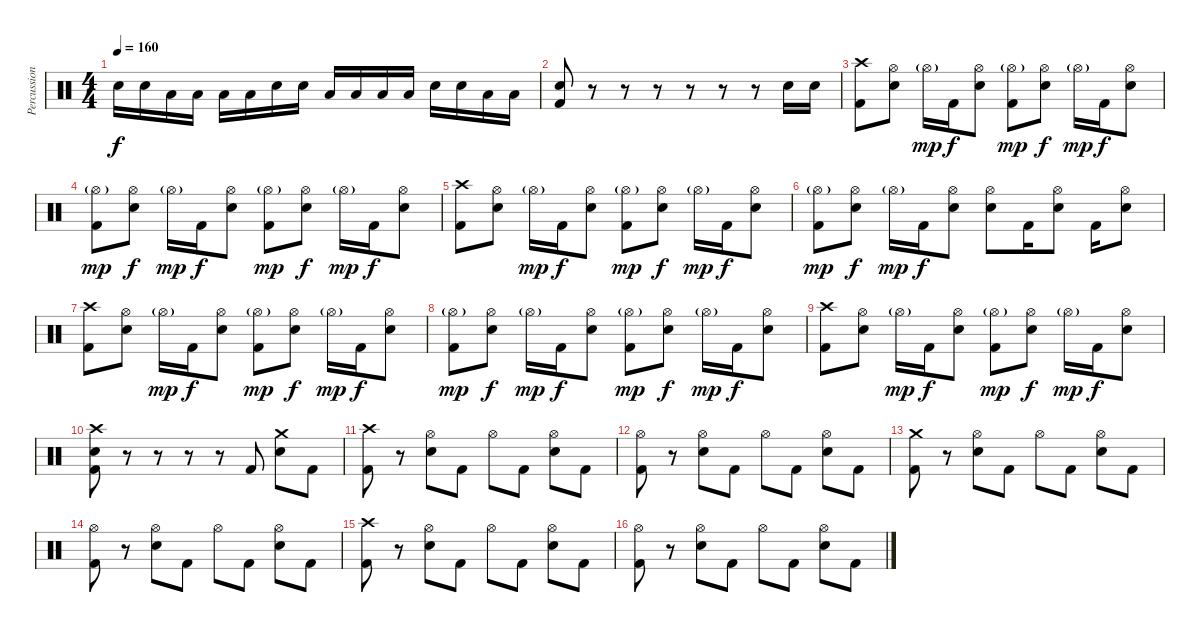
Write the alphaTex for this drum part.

\track ("Percussion" "Percussion") {instrument percussion}
\staff {score}
\articulation defaults
\ts (4 4)
\tempo 160
\clef neutral
\ks c "Electric Snare (hit)".16{dy f} "Electric Snare (hit)".16 "Low Tom (hit)".16 "Low Tom (hit)".16 "Low Tom (hit)".16 "Low Tom (hit)".16 "Electric Snare (hit)".16 "Electric Snare (hit)".16 "Low Tom (hit)".16 "Low Tom (hit)".16 "Low Tom (hit)".16 "Low Tom (hit)".16 "Electric Snare (hit)".16 "Electric Snare (hit)".16 "Low Tom (hit)".16 "Low Tom (hit)".16
|
("Electric Snare (hit)" "Kick (hit) 2").8 r.8 r.8 r.8 r.8 r.8 r.8 "Electric Snare (hit)".16 "Electric Snare (hit)".16 |
("Crash high (hit)" "Kick (hit) 2").8 ("Hi-Hat (open)" "Electric Snare (hit)").8 "Hi-Hat (open)"{g}.16{dy mp} "Kick (hit) 2".16{dy f} ("Hi-Hat (open)" "Electric Snare (hit)").8 ("Hi-Hat (open)"{g} "Kick (hit) 2").8{dy mp} ("Hi-Hat (open)" "Electric Snare (hit)").8{dy f} "Hi-Hat (open)"{g}.16{dy mp} "Kick (hit) 2".16{dy f} ("Hi-Hat (open)" "Electric Snare (hit)").8 |
("Hi-Hat (open)"{g} "Kick (hit) 2").8{dy mp} ("Hi-Hat (open)" "Electric Snare (hit)").8{dy f} "Hi-Hat (open)"{g}.16{dy mp} "Kick (hit) 2".16{dy f} ("Hi-Hat (open)" "Electric Snare (hit)").8 ("Hi-Hat (open)"{g} "Kick (hit) 2").8{dy mp} ("Hi-Hat (open)" "Electric Snare (hit)").8{dy f} "Hi-Hat (open)"{g}.16{dy mp} "Kick (hit) 2".16{dy f} ("Hi-Hat (open)" "Electric Snare (hit)").8 |
("Crash high (hit)" "Kick (hit) 2").8 ("Hi-Hat (open)" "Electric Snare (hit)").8 "Hi-Hat (open)"{g}.16{dy mp} "Kick (hit) 2".16{dy f} ("Hi-Hat (open)" "Electric Snare (hit)").8 ("Hi-Hat (open)"{g} "Kick (hit) 2").8{dy mp} ("Hi-Hat (open)" "Electric Snare (hit)").8{dy f} "Hi-Hat (open)"{g}.16{dy mp} "Kick (hit) 2".16{dy f} ("Hi-Hat (open)" "Electric Snare (hit)").8 |
("Hi-Hat (open)"{g} "Kick (hit) 2").8{dy mp} ("Hi-Hat (open)" "Electric Snare (hit)").8{dy f} "Hi-Hat (open)"{g}.16{dy mp} "Kick (hit) 2".16{dy f} ("Hi-Hat (open)" "Electric Snare (hit)").8 ("Hi-Hat (open)" "Electric Snare (hit)").8 "Kick (hit) 2".16 ("Hi-Hat (open)" "Electric Snare (hit)").8 "Kick (hit) 2".16 ("Hi-Hat (open)" "Electric Snare (hit)").8 |
("Crash high (hit)" "Kick (hit) 2").8 ("Hi-Hat (open)" "Electric Snare (hit)").8 "Hi-Hat (open)"{g}.16{dy mp} "Kick (hit) 2".16{dy f} ("Hi-Hat (open)" "Electric Snare (hit)").8 ("Hi-Hat (open)"{g} "Kick (hit) 2").8{dy mp} ("Hi-Hat (open)" "Electric Snare (hit)").8{dy f} "Hi-Hat (open)"{g}.16{dy mp} "Kick (hit) 2".16{dy f} ("Hi-Hat (open)" "Electric Snare (hit)").8 |
("Hi-Hat (open)"{g} "Kick (hit) 2").8{dy mp} ("Hi-Hat (open)" "Electric Snare (hit)").8{dy f} "Hi-Hat (open)"{g}.16{dy mp} "Kick (hit) 2".16{dy f} ("Hi-Hat (open)" "Electric Snare (hit)").8 ("Hi-Hat (open)"{g} "Kick (hit) 2").8{dy mp} ("Hi-Hat (open)" "Electric Snare (hit)").8{dy f} "Hi-Hat (open)"{g}.16{dy mp} "Kick (hit) 2".16{dy f} ("Hi-Hat (open)" "Electric Snare (hit)").8 |
("Crash high (hit)" "Kick (hit) 2").8 ("Hi-Hat (open)" "Electric Snare (hit)").8 "Hi-Hat (open)"{g}.16{dy mp} "Kick (hit) 2".16{dy f} ("Hi-Hat (open)" "Electric Snare (hit)").8 ("Hi-Hat (open)"{g} "Kick (hit) 2").8{dy mp} ("Hi-Hat (open)" "Electric Snare (hit)").8{dy f} "Hi-Hat (open)"{g}.16{dy mp} "Kick (hit) 2".16{dy f} ("Hi-Hat (open)" "Electric Snare (hit)").8 |
("Crash high (hit)" "Electric Snare (hit)" "Kick (hit) 2").8 r.8 r.8 r.8 r.8 "Kick (hit) 2".8 ("Crash medium (hit)" "Electric Snare (hit)").8 "Kick (hit) 2".8 |
("Crash high (hit)" "Kick (hit) 2").8 r.8 ("Hi-Hat (open)" "Electric Snare (hit)").8 "Kick (hit) 2".8 "Hi-Hat (open)".8 "Kick (hit) 2".8 ("Hi-Hat (open)" "Electric Snare (hit)").8 "Kick (hit) 2".8 |
("Hi-Hat (open)" "Kick (hit) 2").8 r.8 ("Hi-Hat (open)" "Electric Snare (hit)").8 "Kick (hit) 2".8 "Hi-Hat (open)".8 "Kick (hit) 2".8 ("Hi-Hat (open)" "Electric Snare (hit)").8 "Kick (hit) 2".8 |
("Crash medium (hit)" "Kick (hit) 2").8 r.8 ("Hi-Hat (open)" "Electric Snare (hit)").8 "Kick (hit) 2".8 "Hi-Hat (open)".8 "Kick (hit) 2".8 ("Hi-Hat (open)" "Electric Snare (hit)").8 "Kick (hit) 2".8 |
("Hi-Hat (open)" "Kick (hit) 2").8 r.8 ("Hi-Hat (open)" "Electric Snare (hit)").8 "Kick (hit) 2".8 "Hi-Hat (open)".8 "Kick (hit) 2".8 ("Hi-Hat (open)" "Electric Snare (hit)").8 "Kick (hit) 2".8 |
("Crash high (hit)" "Kick (hit) 2").8 r.8 ("Hi-Hat (open)" "Electric Snare (hit)").8 "Kick (hit) 2".8 "Hi-Hat (open)".8 "Kick (hit) 2".8 ("Hi-Hat (open)" "Electric Snare (hit)").8 "Kick (hit) 2".8 |
("Hi-Hat (open)" "Kick (hit) 2").8 r.8 ("Hi-Hat (open)" "Electric Snare (hit)").8 "Kick (hit) 2".8 "Hi-Hat (open)".8 "Kick (hit) 2".8 ("Hi-Hat (open)" "Electric Snare (hit)").8 "Kick (hit) 2".8
